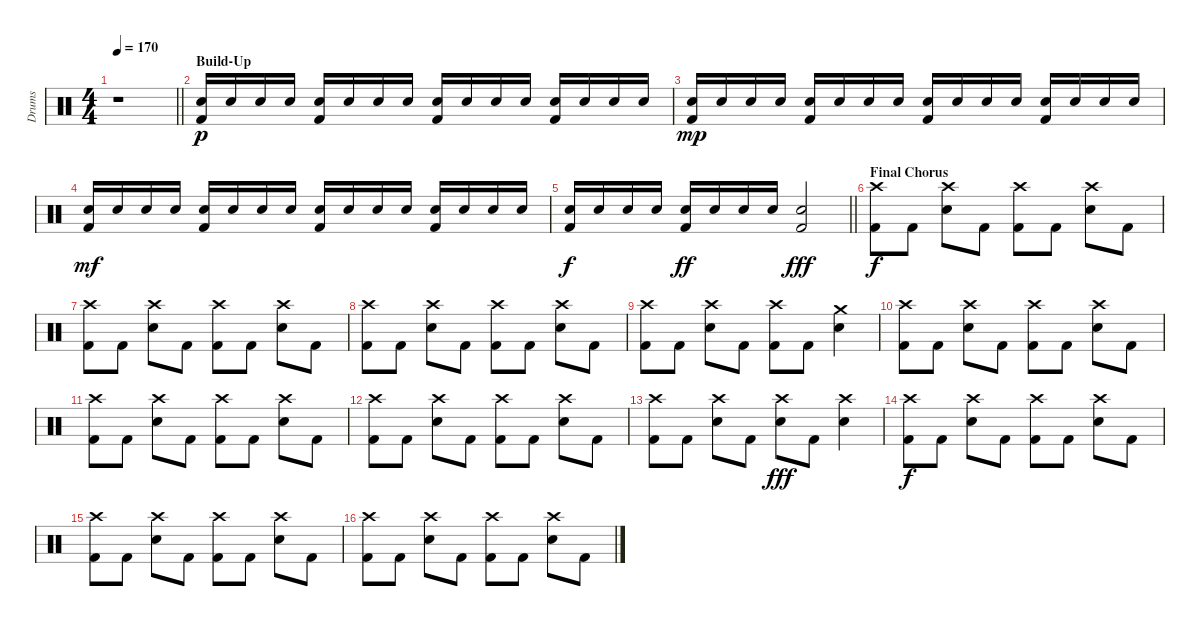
\track ("Drums" "Drums") {instrument percussion}
\staff {score}
\articulation defaults
\ts (4 4)
\tempo 170
\clef neutral
\barLineRight lightlight
\ks c
r.1{dy f} |
\section ("" "Build-Up")
("Snare (hit) 2" "Kick (hit) 2").16{dy p} "Snare (hit) 2".16 "Snare (hit) 2".16 "Snare (hit) 2".16 ("Snare (hit) 2" "Kick (hit) 2").16 "Snare (hit) 2".16 "Snare (hit) 2".16 "Snare (hit) 2".16 ("Snare (hit) 2" "Kick (hit) 2").16 "Snare (hit) 2".16 "Snare (hit) 2".16 "Snare (hit) 2".16 ("Snare (hit) 2" "Kick (hit) 2").16 "Snare (hit) 2".16 "Snare (hit) 2".16 "Snare (hit) 2".16 |
("Snare (hit) 2" "Kick (hit) 2").16{dy mp} "Snare (hit) 2".16 "Snare (hit) 2".16 "Snare (hit) 2".16 ("Snare (hit) 2" "Kick (hit) 2").16 "Snare (hit) 2".16 "Snare (hit) 2".16 "Snare (hit) 2".16 ("Snare (hit) 2" "Kick (hit) 2").16 "Snare (hit) 2".16 "Snare (hit) 2".16 "Snare (hit) 2".16 ("Snare (hit) 2" "Kick (hit) 2").16 "Snare (hit) 2".16 "Snare (hit) 2".16 "Snare (hit) 2".16 |
("Snare (hit) 2" "Kick (hit) 2").16{dy mf} "Snare (hit) 2".16 "Snare (hit) 2".16 "Snare (hit) 2".16 ("Snare (hit) 2" "Kick (hit) 2").16 "Snare (hit) 2".16 "Snare (hit) 2".16 "Snare (hit) 2".16 ("Snare (hit) 2" "Kick (hit) 2").16 "Snare (hit) 2".16 "Snare (hit) 2".16 "Snare (hit) 2".16 ("Snare (hit) 2" "Kick (hit) 2").16 "Snare (hit) 2".16 "Snare (hit) 2".16 "Snare (hit) 2".16 |
\barLineRight lightlight
("Snare (hit) 2" "Kick (hit) 2").16{dy f} "Snare (hit) 2".16 "Snare (hit) 2".16 "Snare (hit) 2".16 ("Snare (hit) 2" "Kick (hit) 2").16{dy ff} "Snare (hit) 2".16 "Snare (hit) 2".16 "Snare (hit) 2".16 ("Snare (hit) 2" "Kick (hit) 2").2{dy fff} |
\section ("" "Final Chorus")
("Crash high (hit)" "Kick (hit) 2").8{dy f} "Kick (hit) 2".8 ("Crash high (hit)" "Snare (hit) 2").8 "Kick (hit) 2".8 ("Crash high (hit)" "Kick (hit) 2").8 "Kick (hit) 2".8 ("Crash high (hit)" "Snare (hit) 2").8 "Kick (hit) 2".8 |
("Crash high (hit)" "Kick (hit) 2").8 "Kick (hit) 2".8 ("Crash high (hit)" "Snare (hit) 2").8 "Kick (hit) 2".8 ("Crash high (hit)" "Kick (hit) 2").8 "Kick (hit) 2".8 ("Crash high (hit)" "Snare (hit) 2").8 "Kick (hit) 2".8 |
("Crash high (hit)" "Kick (hit) 2").8 "Kick (hit) 2".8 ("Crash high (hit)" "Snare (hit) 2").8 "Kick (hit) 2".8 ("Crash high (hit)" "Kick (hit) 2").8 "Kick (hit) 2".8 ("Crash high (hit)" "Snare (hit) 2").8 "Kick (hit) 2".8 |
("Crash high (hit)" "Kick (hit) 2").8 "Kick (hit) 2".8 ("Crash high (hit)" "Snare (hit) 2").8 "Kick (hit) 2".8 ("Crash high (hit)" "Kick (hit) 2").8 "Kick (hit) 2".8 ("Crash medium (hit)" "Snare (hit) 2").4 |
("Crash high (hit)" "Kick (hit) 2").8 "Kick (hit) 2".8 ("Crash high (hit)" "Snare (hit) 2").8 "Kick (hit) 2".8 ("Crash high (hit)" "Kick (hit) 2").8 "Kick (hit) 2".8 ("Crash high (hit)" "Snare (hit) 2").8 "Kick (hit) 2".8 |
("Crash high (hit)" "Kick (hit) 2").8 "Kick (hit) 2".8 ("Crash high (hit)" "Snare (hit) 2").8 "Kick (hit) 2".8 ("Crash high (hit)" "Kick (hit) 2").8 "Kick (hit) 2".8 ("Crash high (hit)" "Snare (hit) 2").8 "Kick (hit) 2".8 |
("Crash high (hit)" "Kick (hit) 2").8 "Kick (hit) 2".8 ("Crash high (hit)" "Snare (hit) 2").8 "Kick (hit) 2".8 ("Crash high (hit)" "Kick (hit) 2").8 "Kick (hit) 2".8 ("Crash high (hit)" "Snare (hit) 2").8 "Kick (hit) 2".8 |
("Crash high (hit)" "Kick (hit) 2").8 "Kick (hit) 2".8 ("Crash high (hit)" "Snare (hit) 2").8 "Kick (hit) 2".8 ("Crash high (hit)" "Snare (hit) 2").8{dy fff} "Kick (hit) 2".8 ("Crash high (hit)" "Snare (hit) 2").4 |
("Crash high (hit)" "Kick (hit) 2").8{dy f} "Kick (hit) 2".8 ("Crash high (hit)" "Snare (hit) 2").8 "Kick (hit) 2".8 ("Crash high (hit)" "Kick (hit) 2").8 "Kick (hit) 2".8 ("Crash high (hit)" "Snare (hit) 2").8 "Kick (hit) 2".8 |
("Crash high (hit)" "Kick (hit) 2").8 "Kick (hit) 2".8 ("Crash high (hit)" "Snare (hit) 2").8 "Kick (hit) 2".8 ("Crash high (hit)" "Kick (hit) 2").8 "Kick (hit) 2".8 ("Crash high (hit)" "Snare (hit) 2").8 "Kick (hit) 2".8 |
("Crash high (hit)" "Kick (hit) 2").8 "Kick (hit) 2".8 ("Crash high (hit)" "Snare (hit) 2").8 "Kick (hit) 2".8 ("Crash high (hit)" "Kick (hit) 2").8 "Kick (hit) 2".8 ("Crash high (hit)" "Snare (hit) 2").8 "Kick (hit) 2".8
